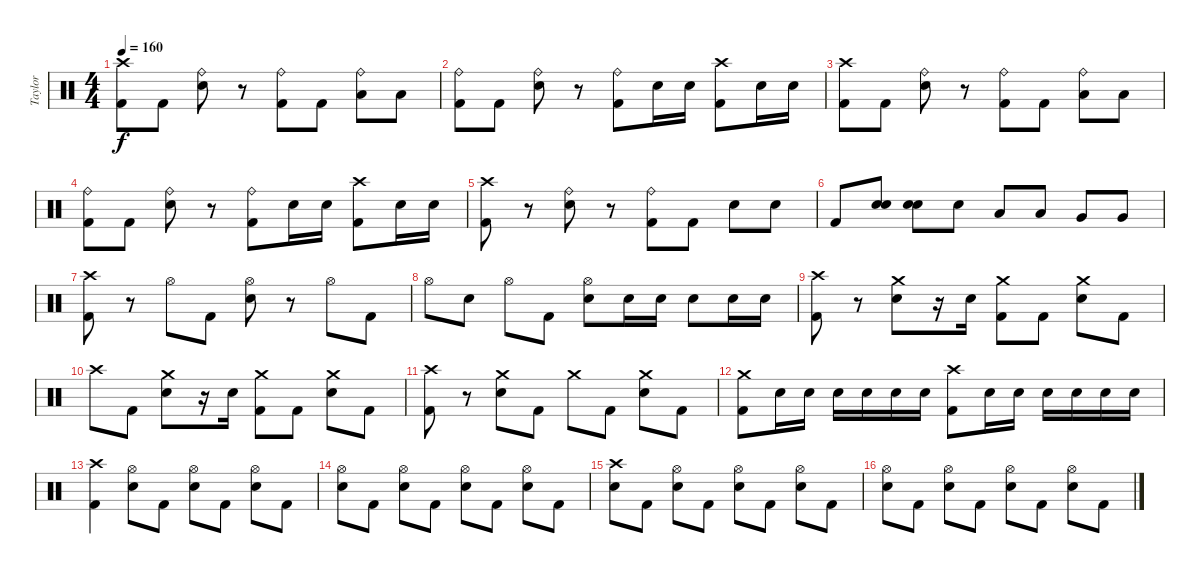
\track ("Taylor" "Taylor") {instrument percussion}
\staff {score}
\articulation defaults
\ts (4 4)
\tempo 160
\clef neutral
\ks c
("Crash high (hit)" "Kick (hit) 2").8{dy f} "Kick (hit) 2".8 ("Ride (bell)" "Electric Snare (hit)").8 r.8 ("Ride (bell)" "Kick (hit) 2").8 "Kick (hit) 2".8 ("Ride (bell)" "Low Tom (hit)").8 "Low Tom (hit)".8 |
("Ride (bell)" "Kick (hit) 2").8 "Kick (hit) 2".8 ("Ride (bell)" "Electric Snare (hit)").8 r.8 ("Ride (bell)" "Kick (hit) 2").8 "Electric Snare (hit)".16 "Electric Snare (hit)".16 ("Crash high (hit)" "Kick (hit) 2").8 "Electric Snare (hit)".16 "Electric Snare (hit)".16 |
("Crash high (hit)" "Kick (hit) 2").8 "Kick (hit) 2".8 ("Ride (bell)" "Electric Snare (hit)").8 r.8 ("Ride (bell)" "Kick (hit) 2").8 "Kick (hit) 2".8 ("Ride (bell)" "Low Tom (hit)").8 "Low Tom (hit)".8 |
("Ride (bell)" "Kick (hit) 2").8 "Kick (hit) 2".8 ("Ride (bell)" "Electric Snare (hit)").8 r.8 ("Ride (bell)" "Kick (hit) 2").8 "Electric Snare (hit)".16 "Electric Snare (hit)".16 ("Crash high (hit)" "Kick (hit) 2").8 "Electric Snare (hit)".16 "Electric Snare (hit)".16 |
("Crash high (hit)" "Kick (hit) 2").8 r.8 ("Ride (bell)" "Electric Snare (hit)").8 r.8 ("Ride (bell)" "Kick (hit) 2").8 "Kick (hit) 2".8 "Electric Snare (hit)".8 "Electric Snare (hit)".8 |
"Kick (hit) 2".8 ("Electric Snare (hit)" "Electric Snare (hit)").8 ("Electric Snare (hit)" "Electric Snare (hit)").8 "Electric Snare (hit)".8 "Low Tom (hit)".8 "Low Tom (hit)".8 "Very Low Tom (hit)".8 "Very Low Tom (hit)".8 |
("Crash high (hit)" "Kick (hit) 2").8 r.8 "Hi-Hat (open)".8 "Kick (hit) 2".8 ("Hi-Hat (open)" "Electric Snare (hit)").8 r.8 "Hi-Hat (open)".8 "Kick (hit) 2".8 |
"Hi-Hat (open)".8 "Electric Snare (hit)".8 "Hi-Hat (open)".8 "Kick (hit) 2".8 ("Hi-Hat (open)" "Electric Snare (hit)").8 "Electric Snare (hit)".16 "Electric Snare (hit)".16 "Electric Snare (hit)".8 "Electric Snare (hit)".16 "Electric Snare (hit)".16 |
("Crash high (hit)" "Kick (hit) 2").8 r.8 ("Crash medium (hit)" "Electric Snare (hit)").8 r.16 "Electric Snare (hit)".16 ("Crash medium (hit)" "Kick (hit) 2").8 "Kick (hit) 2".8 ("Crash medium (hit)" "Electric Snare (hit)").8 "Kick (hit) 2".8 |
"Crash high (hit)".8 "Kick (hit) 2".8 ("Crash medium (hit)" "Electric Snare (hit)").8 r.16 "Electric Snare (hit)".16 ("Crash medium (hit)" "Kick (hit) 2").8 "Kick (hit) 2".8 ("Crash medium (hit)" "Electric Snare (hit)").8 "Kick (hit) 2".8 |
("Crash high (hit)" "Kick (hit) 2").8 r.8 ("Crash medium (hit)" "Electric Snare (hit)").8 "Kick (hit) 2".8 "Crash medium (hit)".8 "Kick (hit) 2".8 ("Crash medium (hit)" "Electric Snare (hit)").8 "Kick (hit) 2".8 |
("Crash medium (hit)" "Kick (hit) 2").8 "Electric Snare (hit)".16 "Electric Snare (hit)".16 "Electric Snare (hit)".16 "Electric Snare (hit)".16 "Electric Snare (hit)".16 "Electric Snare (hit)".16 ("Crash high (hit)" "Kick (hit) 2").8 "Electric Snare (hit)".16 "Electric Snare (hit)".16 "Electric Snare (hit)".16 "Electric Snare (hit)".16 "Electric Snare (hit)".16 "Electric Snare (hit)".16 |
("Crash high (hit)" "Kick (hit) 2").4 ("Hi-Hat (open)" "Electric Snare (hit)").8 "Kick (hit) 2".8 ("Hi-Hat (open)" "Electric Snare (hit)").8 "Kick (hit) 2".8 ("Hi-Hat (open)" "Electric Snare (hit)").8 "Kick (hit) 2".8 |
("Hi-Hat (open)" "Electric Snare (hit)").8 "Kick (hit) 2".8 ("Hi-Hat (open)" "Electric Snare (hit)").8 "Kick (hit) 2".8 ("Hi-Hat (open)" "Electric Snare (hit)").8 "Kick (hit) 2".8 ("Hi-Hat (open)" "Electric Snare (hit)").8 "Kick (hit) 2".8 |
("Crash high (hit)" "Electric Snare (hit)").8 "Kick (hit) 2".8 ("Hi-Hat (open)" "Electric Snare (hit)").8 "Kick (hit) 2".8 ("Hi-Hat (open)" "Electric Snare (hit)").8 "Kick (hit) 2".8 ("Hi-Hat (open)" "Electric Snare (hit)").8 "Kick (hit) 2".8 |
("Hi-Hat (open)" "Electric Snare (hit)").8 "Kick (hit) 2".8 ("Hi-Hat (open)" "Electric Snare (hit)").8 "Kick (hit) 2".8 ("Hi-Hat (open)" "Electric Snare (hit)").8 "Kick (hit) 2".8 ("Hi-Hat (open)" "Electric Snare (hit)").8 "Kick (hit) 2".8
